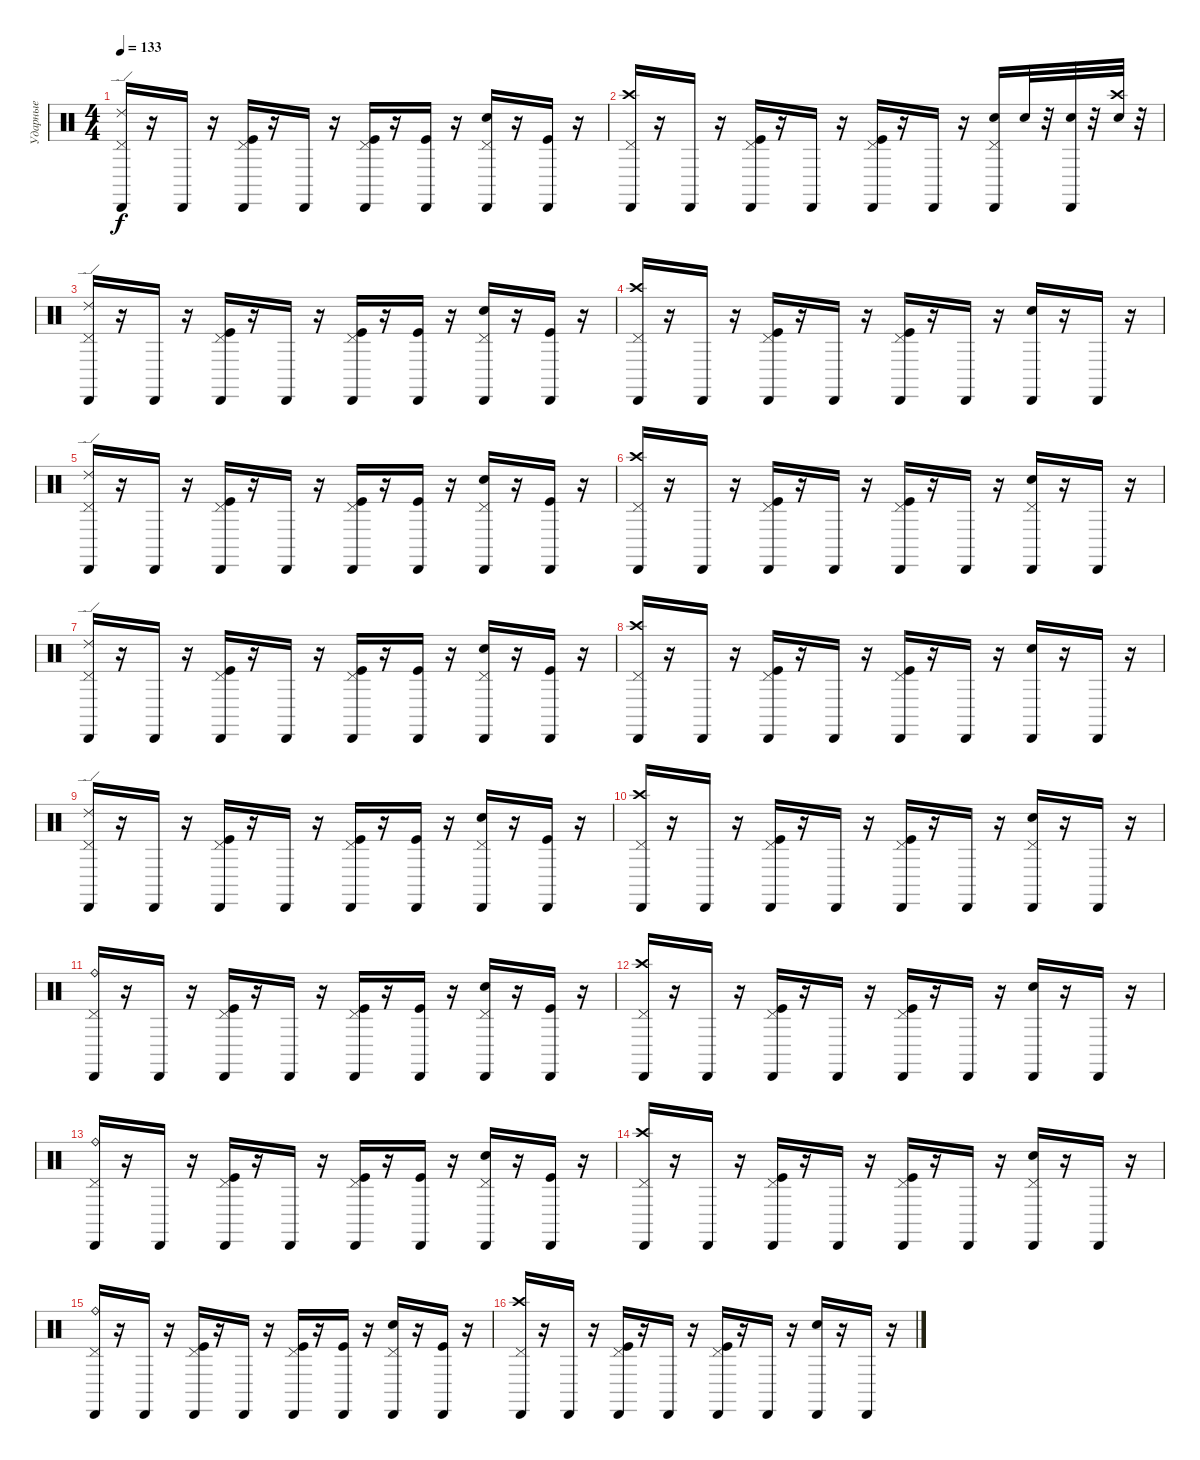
\track ("Ударные" "Ударные") {instrument percussion}
\staff {score}
\articulation defaults
\ts (4 4)
\tempo 133
\clef neutral
\ks c
("Cabasa (hit)" "Pedal Hi-Hat (hit)" "Ride (edge) 2").16{dy f} r.16 "Cabasa (hit)".16 r.16 ("Cabasa (hit)" "Pedal Hi-Hat (hit)" "Kick (hit)").16 r.16 "Cabasa (hit)".16 r.16 ("Cabasa (hit)" "Pedal Hi-Hat (hit)" "Kick (hit)").16 r.16 ("Cabasa (hit)" "Kick (hit)").16 r.16 ("Cabasa (hit)" "Pedal Hi-Hat (hit)" "Snare (hit) 2").16 r.16 ("Cabasa (hit)" "Kick (hit)").16 r.16 |
("Cabasa (hit)" "Pedal Hi-Hat (hit)" "Crash high (hit)").16 r.16 "Cabasa (hit)".16 r.16 ("Cabasa (hit)" "Pedal Hi-Hat (hit)" "Kick (hit)").16 r.16 "Cabasa (hit)".16 r.16 ("Cabasa (hit)" "Pedal Hi-Hat (hit)" "Kick (hit)").16 r.16 "Cabasa (hit)".16 r.16 ("Cabasa (hit)" "Pedal Hi-Hat (hit)" "Electric Snare (hit)").16 "Electric Snare (hit)".32 r.32 ("Cabasa (hit)" "Electric Snare (hit)").32 r.32 ("Snare (hit) 2" "Crash high (hit)").32 r.32 |
("Cabasa (hit)" "Pedal Hi-Hat (hit)" "Ride (edge) 2").16 r.16 "Cabasa (hit)".16 r.16 ("Cabasa (hit)" "Pedal Hi-Hat (hit)" "Kick (hit)").16 r.16 "Cabasa (hit)".16 r.16 ("Cabasa (hit)" "Pedal Hi-Hat (hit)" "Kick (hit)").16 r.16 ("Cabasa (hit)" "Kick (hit)").16 r.16 ("Cabasa (hit)" "Pedal Hi-Hat (hit)" "Snare (hit) 2").16 r.16 ("Cabasa (hit)" "Kick (hit)").16 r.16 |
("Cabasa (hit)" "Pedal Hi-Hat (hit)" "Crash high (hit)").16 r.16 "Cabasa (hit)".16 r.16 ("Cabasa (hit)" "Pedal Hi-Hat (hit)" "Kick (hit)").16 r.16 "Cabasa (hit)".16 r.16 ("Cabasa (hit)" "Pedal Hi-Hat (hit)" "Kick (hit)").16 r.16 "Cabasa (hit)".16 r.16 ("Cabasa (hit)" "Electric Snare (hit)").16 r.16 "Cabasa (hit)".16 r.16 |
("Cabasa (hit)" "Pedal Hi-Hat (hit)" "Ride (edge) 2").16 r.16 "Cabasa (hit)".16 r.16 ("Cabasa (hit)" "Pedal Hi-Hat (hit)" "Kick (hit)").16 r.16 "Cabasa (hit)".16 r.16 ("Cabasa (hit)" "Pedal Hi-Hat (hit)" "Kick (hit)").16 r.16 ("Cabasa (hit)" "Kick (hit)").16 r.16 ("Cabasa (hit)" "Pedal Hi-Hat (hit)" "Snare (hit) 2").16 r.16 ("Cabasa (hit)" "Kick (hit)").16 r.16 |
("Cabasa (hit)" "Pedal Hi-Hat (hit)" "Crash high (hit)").16 r.16 "Cabasa (hit)".16 r.16 ("Cabasa (hit)" "Pedal Hi-Hat (hit)" "Kick (hit)").16 r.16 "Cabasa (hit)".16 r.16 ("Cabasa (hit)" "Pedal Hi-Hat (hit)" "Kick (hit)").16 r.16 "Cabasa (hit)".16 r.16 ("Cabasa (hit)" "Pedal Hi-Hat (hit)" "Electric Snare (hit)").16 r.16 "Cabasa (hit)".16 r.16 |
("Cabasa (hit)" "Pedal Hi-Hat (hit)" "Ride (edge) 2").16 r.16 "Cabasa (hit)".16 r.16 ("Cabasa (hit)" "Pedal Hi-Hat (hit)" "Kick (hit)").16 r.16 "Cabasa (hit)".16 r.16 ("Cabasa (hit)" "Pedal Hi-Hat (hit)" "Kick (hit)").16 r.16 ("Cabasa (hit)" "Kick (hit)").16 r.16 ("Cabasa (hit)" "Pedal Hi-Hat (hit)" "Snare (hit) 2").16 r.16 ("Cabasa (hit)" "Kick (hit)").16 r.16 |
("Cabasa (hit)" "Pedal Hi-Hat (hit)" "Crash high (hit)").16 r.16 "Cabasa (hit)".16 r.16 ("Cabasa (hit)" "Pedal Hi-Hat (hit)" "Kick (hit)").16 r.16 "Cabasa (hit)".16 r.16 ("Cabasa (hit)" "Pedal Hi-Hat (hit)" "Kick (hit)").16 r.16 "Cabasa (hit)".16 r.16 ("Cabasa (hit)" "Electric Snare (hit)").16 r.16 "Cabasa (hit)".16 r.16 |
("Cabasa (hit)" "Pedal Hi-Hat (hit)" "Ride (edge) 2").16 r.16 "Cabasa (hit)".16 r.16 ("Cabasa (hit)" "Pedal Hi-Hat (hit)" "Kick (hit)").16 r.16 "Cabasa (hit)".16 r.16 ("Cabasa (hit)" "Pedal Hi-Hat (hit)" "Kick (hit)").16 r.16 ("Cabasa (hit)" "Kick (hit)").16 r.16 ("Cabasa (hit)" "Pedal Hi-Hat (hit)" "Snare (hit) 2").16 r.16 ("Cabasa (hit)" "Kick (hit)").16 r.16 |
("Cabasa (hit)" "Pedal Hi-Hat (hit)" "Crash high (hit)").16 r.16 "Cabasa (hit)".16 r.16 ("Cabasa (hit)" "Pedal Hi-Hat (hit)" "Kick (hit)").16 r.16 "Cabasa (hit)".16 r.16 ("Cabasa (hit)" "Pedal Hi-Hat (hit)" "Kick (hit)").16 r.16 "Cabasa (hit)".16 r.16 ("Cabasa (hit)" "Pedal Hi-Hat (hit)" "Electric Snare (hit)").16 r.16 "Cabasa (hit)".16 r.16 |
("Cabasa (hit)" "Pedal Hi-Hat (hit)" "Ride (bell)").16 r.16 "Cabasa (hit)".16 r.16 ("Cabasa (hit)" "Pedal Hi-Hat (hit)" "Kick (hit)").16 r.16 "Cabasa (hit)".16 r.16 ("Cabasa (hit)" "Pedal Hi-Hat (hit)" "Kick (hit)").16 r.16 ("Cabasa (hit)" "Kick (hit)").16 r.16 ("Cabasa (hit)" "Pedal Hi-Hat (hit)" "Snare (hit) 2").16 r.16 ("Cabasa (hit)" "Kick (hit)").16 r.16 |
("Cabasa (hit)" "Pedal Hi-Hat (hit)" "Crash high (hit)").16 r.16 "Cabasa (hit)".16 r.16 ("Cabasa (hit)" "Pedal Hi-Hat (hit)" "Kick (hit)").16 r.16 "Cabasa (hit)".16 r.16 ("Cabasa (hit)" "Pedal Hi-Hat (hit)" "Kick (hit)").16 r.16 "Cabasa (hit)".16 r.16 ("Cabasa (hit)" "Electric Snare (hit)").16 r.16 "Cabasa (hit)".16 r.16 |
("Cabasa (hit)" "Pedal Hi-Hat (hit)" "Ride (bell)").16 r.16 "Cabasa (hit)".16 r.16 ("Cabasa (hit)" "Pedal Hi-Hat (hit)" "Kick (hit)").16 r.16 "Cabasa (hit)".16 r.16 ("Cabasa (hit)" "Pedal Hi-Hat (hit)" "Kick (hit)").16 r.16 ("Cabasa (hit)" "Kick (hit)").16 r.16 ("Cabasa (hit)" "Pedal Hi-Hat (hit)" "Snare (hit) 2").16 r.16 ("Cabasa (hit)" "Kick (hit)").16 r.16 |
("Cabasa (hit)" "Pedal Hi-Hat (hit)" "Crash high (hit)").16 r.16 "Cabasa (hit)".16 r.16 ("Cabasa (hit)" "Pedal Hi-Hat (hit)" "Kick (hit)").16 r.16 "Cabasa (hit)".16 r.16 ("Cabasa (hit)" "Pedal Hi-Hat (hit)" "Kick (hit)").16 r.16 "Cabasa (hit)".16 r.16 ("Cabasa (hit)" "Pedal Hi-Hat (hit)" "Electric Snare (hit)").16 r.16 "Cabasa (hit)".16 r.16 |
("Cabasa (hit)" "Pedal Hi-Hat (hit)" "Ride (bell)").16 r.16 "Cabasa (hit)".16 r.16 ("Cabasa (hit)" "Pedal Hi-Hat (hit)" "Kick (hit)").16 r.16 "Cabasa (hit)".16 r.16 ("Cabasa (hit)" "Pedal Hi-Hat (hit)" "Kick (hit)").16 r.16 ("Cabasa (hit)" "Kick (hit)").16 r.16 ("Cabasa (hit)" "Pedal Hi-Hat (hit)" "Snare (hit) 2").16 r.16 ("Cabasa (hit)" "Kick (hit)").16 r.16 |
("Cabasa (hit)" "Pedal Hi-Hat (hit)" "Crash high (hit)").16 r.16 "Cabasa (hit)".16 r.16 ("Cabasa (hit)" "Pedal Hi-Hat (hit)" "Kick (hit)").16 r.16 "Cabasa (hit)".16 r.16 ("Cabasa (hit)" "Pedal Hi-Hat (hit)" "Kick (hit)").16 r.16 "Cabasa (hit)".16 r.16 ("Cabasa (hit)" "Electric Snare (hit)").16 r.16 "Cabasa (hit)".16 r.16
